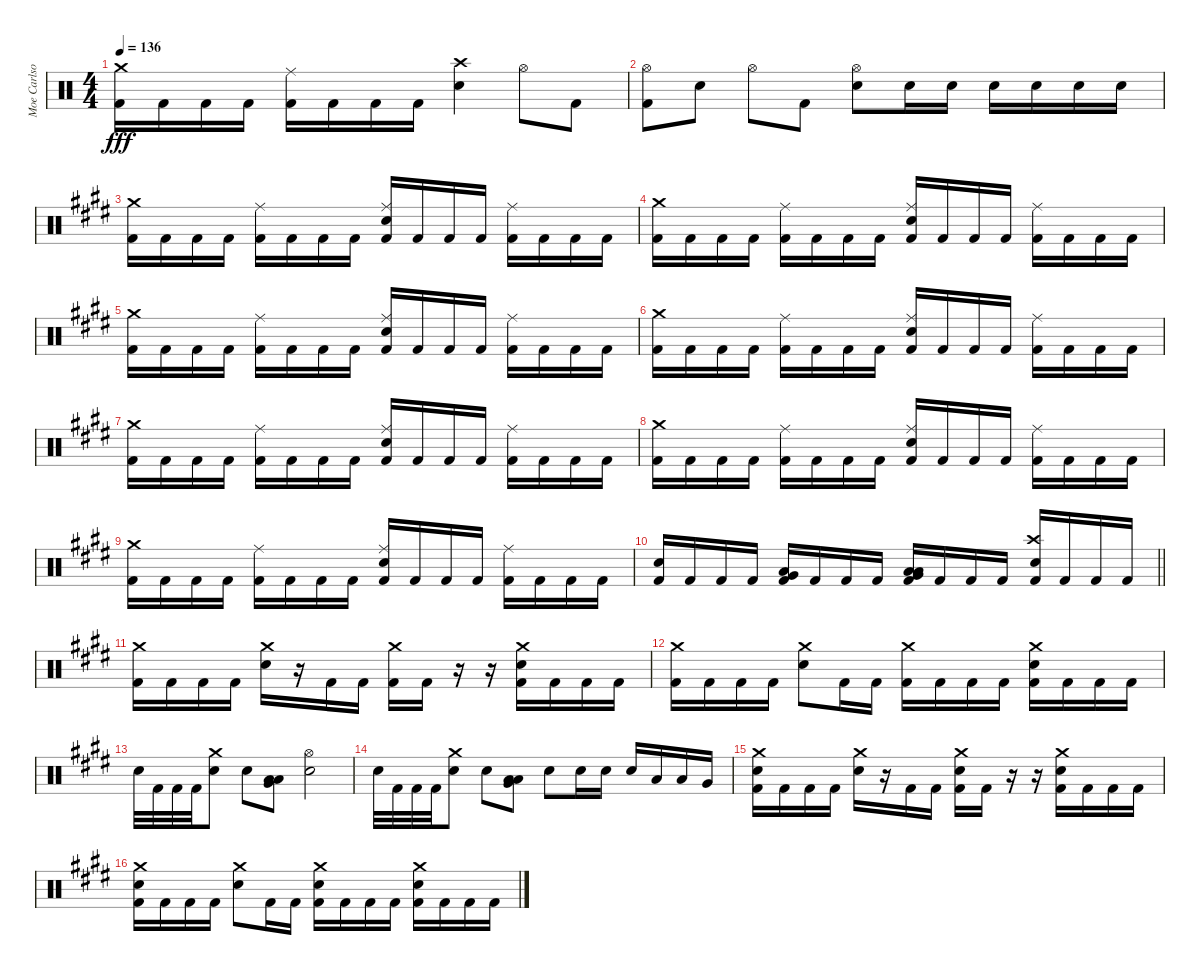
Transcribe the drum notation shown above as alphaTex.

\track ("Moe Carlson" "Moe Carlso") {instrument percussion}
\staff {score}
\articulation defaults
\ts (4 4)
\tempo 136
\clef neutral
\ks c
("Crash medium (hit)" "Kick (hit) 2").16{dy fff} "Kick (hit) 2".16 "Kick (hit) 2".16 "Kick (hit) 2".16 ("Ride (middle)" "Kick (hit) 2").16 "Kick (hit) 2".16 "Kick (hit) 2".16 "Kick (hit) 2".16 ("Crash high (hit)" "Electric Snare (hit)").4 "Hi-Hat (open)".8 "Kick (hit) 2".8 |
("Hi-Hat (open)" "Kick (hit) 2").8 "Electric Snare (hit)".8 "Hi-Hat (open)".8 "Kick (hit) 2".8 ("Hi-Hat (open)" "Electric Snare (hit)").8 "Electric Snare (hit)".16 "Electric Snare (hit)".16 "Electric Snare (hit)".16 "Electric Snare (hit)".16 "Electric Snare (hit)".16 "Electric Snare (hit)".16 |
\ks e
("Crash medium (hit)" "Kick (hit) 2").16 "Kick (hit) 2".16 "Kick (hit) 2".16 "Kick (hit) 2".16 ("Ride (middle)" "Kick (hit) 2").16 "Kick (hit) 2".16 "Kick (hit) 2".16 "Kick (hit) 2".16 ("Ride (middle)" "Electric Snare (hit)" "Kick (hit) 2").16 "Kick (hit) 2".16 "Kick (hit) 2".16 "Kick (hit) 2".16 ("Ride (middle)" "Kick (hit) 2").16 "Kick (hit) 2".16 "Kick (hit) 2".16 "Kick (hit) 2".16 |
("Crash medium (hit)" "Kick (hit) 2").16 "Kick (hit) 2".16 "Kick (hit) 2".16 "Kick (hit) 2".16 ("Ride (middle)" "Kick (hit) 2").16 "Kick (hit) 2".16 "Kick (hit) 2".16 "Kick (hit) 2".16 ("Ride (middle)" "Electric Snare (hit)" "Kick (hit) 2").16 "Kick (hit) 2".16 "Kick (hit) 2".16 "Kick (hit) 2".16 ("Ride (middle)" "Kick (hit) 2").16 "Kick (hit) 2".16 "Kick (hit) 2".16 "Kick (hit) 2".16 |
("Crash medium (hit)" "Kick (hit) 2").16 "Kick (hit) 2".16 "Kick (hit) 2".16 "Kick (hit) 2".16 ("Ride (middle)" "Kick (hit) 2").16 "Kick (hit) 2".16 "Kick (hit) 2".16 "Kick (hit) 2".16 ("Ride (middle)" "Electric Snare (hit)" "Kick (hit) 2").16 "Kick (hit) 2".16 "Kick (hit) 2".16 "Kick (hit) 2".16 ("Ride (middle)" "Kick (hit) 2").16 "Kick (hit) 2".16 "Kick (hit) 2".16 "Kick (hit) 2".16 |
("Crash medium (hit)" "Kick (hit) 2").16 "Kick (hit) 2".16 "Kick (hit) 2".16 "Kick (hit) 2".16 ("Ride (middle)" "Kick (hit) 2").16 "Kick (hit) 2".16 "Kick (hit) 2".16 "Kick (hit) 2".16 ("Ride (middle)" "Electric Snare (hit)" "Kick (hit) 2").16 "Kick (hit) 2".16 "Kick (hit) 2".16 "Kick (hit) 2".16 ("Ride (middle)" "Kick (hit) 2").16 "Kick (hit) 2".16 "Kick (hit) 2".16 "Kick (hit) 2".16 |
("Crash medium (hit)" "Kick (hit) 2").16 "Kick (hit) 2".16 "Kick (hit) 2".16 "Kick (hit) 2".16 ("Ride (middle)" "Kick (hit) 2").16 "Kick (hit) 2".16 "Kick (hit) 2".16 "Kick (hit) 2".16 ("Ride (middle)" "Electric Snare (hit)" "Kick (hit) 2").16 "Kick (hit) 2".16 "Kick (hit) 2".16 "Kick (hit) 2".16 ("Ride (middle)" "Kick (hit) 2").16 "Kick (hit) 2".16 "Kick (hit) 2".16 "Kick (hit) 2".16 |
("Crash medium (hit)" "Kick (hit) 2").16 "Kick (hit) 2".16 "Kick (hit) 2".16 "Kick (hit) 2".16 ("Ride (middle)" "Kick (hit) 2").16 "Kick (hit) 2".16 "Kick (hit) 2".16 "Kick (hit) 2".16 ("Ride (middle)" "Electric Snare (hit)" "Kick (hit) 2").16 "Kick (hit) 2".16 "Kick (hit) 2".16 "Kick (hit) 2".16 ("Ride (middle)" "Kick (hit) 2").16 "Kick (hit) 2".16 "Kick (hit) 2".16 "Kick (hit) 2".16 |
("Crash medium (hit)" "Kick (hit) 2").16 "Kick (hit) 2".16 "Kick (hit) 2".16 "Kick (hit) 2".16 ("Ride (middle)" "Kick (hit) 2").16 "Kick (hit) 2".16 "Kick (hit) 2".16 "Kick (hit) 2".16 ("Ride (middle)" "Electric Snare (hit)" "Kick (hit) 2").16 "Kick (hit) 2".16 "Kick (hit) 2".16 "Kick (hit) 2".16 ("Ride (middle)" "Kick (hit) 2").16 "Kick (hit) 2".16 "Kick (hit) 2".16 "Kick (hit) 2".16 |
\barLineRight lightlight
("Electric Snare (hit)" "Kick (hit) 2").16 "Kick (hit) 2".16 "Kick (hit) 2".16 "Kick (hit) 2".16 ("Low Tom (hit)" "Very Low Tom (hit)" "Kick (hit) 2").16 "Kick (hit) 2".16 "Kick (hit) 2".16 "Kick (hit) 2".16 ("Low Tom (hit)" "Low Floor Tom (hit)" "Very Low Tom (hit)" "Kick (hit) 2").16 "Kick (hit) 2".16 "Kick (hit) 2".16 "Kick (hit) 2".16 ("Crash high (hit)" "Electric Snare (hit)" "Kick (hit) 2").16 "Kick (hit) 2".16 "Kick (hit) 2".16 "Kick (hit) 2".16 |
("Crash medium (hit)" "Kick (hit) 2").16 "Kick (hit) 2".16 "Kick (hit) 2".16 "Kick (hit) 2".16 ("Crash medium (hit)" "Electric Snare (hit)").16 r.16 "Kick (hit) 2".16 "Kick (hit) 2".16 ("Crash medium (hit)" "Kick (hit) 2").16 "Kick (hit) 2".16 r.16 r.16 ("Crash medium (hit)" "Electric Snare (hit)" "Kick (hit) 2").16 "Kick (hit) 2".16 "Kick (hit) 2".16 "Kick (hit) 2".16 |
("Crash medium (hit)" "Kick (hit) 2").16 "Kick (hit) 2".16 "Kick (hit) 2".16 "Kick (hit) 2".16 ("Crash medium (hit)" "Electric Snare (hit)").8 "Kick (hit) 2".16 "Kick (hit) 2".16 ("Crash medium (hit)" "Kick (hit) 2").16 "Kick (hit) 2".16 "Kick (hit) 2".16 "Kick (hit) 2".16 ("Crash medium (hit)" "Electric Snare (hit)" "Kick (hit) 2").16 "Kick (hit) 2".16 "Kick (hit) 2".16 "Kick (hit) 2".16 |
"Electric Snare (hit)".32 "Kick (hit) 2".32 "Kick (hit) 2".32 "Kick (hit) 2".32 ("Crash medium (hit)" "Electric Snare (hit)").8 "Electric Snare (hit)".8 ("Low Tom (hit)" "Low Floor Tom (hit)" "Very Low Tom (hit)").8 ("Hi-Hat (open)" "Electric Snare (hit)").2 |
"Electric Snare (hit)".32 "Kick (hit) 2".32 "Kick (hit) 2".32 "Kick (hit) 2".32 ("Crash medium (hit)" "Electric Snare (hit)").8 "Electric Snare (hit)".8 ("Low Floor Tom (hit)" "Low Tom (hit)" "Very Low Tom (hit)").8 "Electric Snare (hit)".8 "Electric Snare (hit)".16 "Electric Snare (hit)".16 "Electric Snare (hit)".16 "Low Tom (hit)".16 "Low Tom (hit)".16 "Very Low Tom (hit)".16 |
("Crash medium (hit)" "Electric Snare (hit)" "Kick (hit) 2").16 "Kick (hit) 2".16 "Kick (hit) 2".16 "Kick (hit) 2".16 ("Crash medium (hit)" "Electric Snare (hit)").16 r.16 "Kick (hit) 2".16 "Kick (hit) 2".16 ("Crash medium (hit)" "Electric Snare (hit)" "Kick (hit) 2").16 "Kick (hit) 2".16 r.16 r.16 ("Crash medium (hit)" "Electric Snare (hit)" "Kick (hit) 2").16 "Kick (hit) 2".16 "Kick (hit) 2".16 "Kick (hit) 2".16 |
("Crash medium (hit)" "Electric Snare (hit)" "Kick (hit) 2").16 "Kick (hit) 2".16 "Kick (hit) 2".16 "Kick (hit) 2".16 ("Crash medium (hit)" "Electric Snare (hit)").8 "Kick (hit) 2".16 "Kick (hit) 2".16 ("Crash medium (hit)" "Electric Snare (hit)" "Kick (hit) 2").16 "Kick (hit) 2".16 "Kick (hit) 2".16 "Kick (hit) 2".16 ("Crash medium (hit)" "Electric Snare (hit)" "Kick (hit) 2").16 "Kick (hit) 2".16 "Kick (hit) 2".16 "Kick (hit) 2".16
